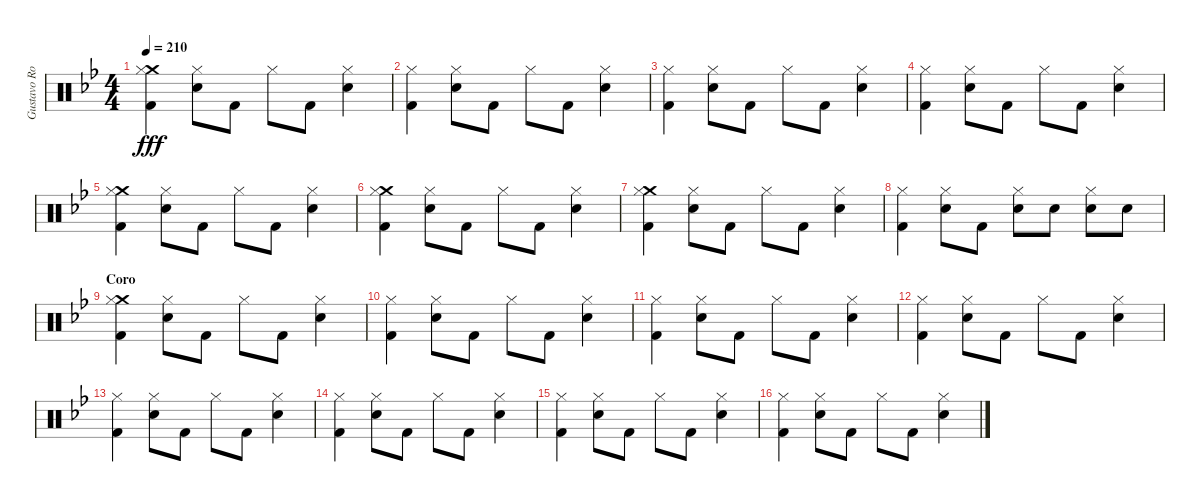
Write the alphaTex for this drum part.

\track ("Gustavo Rowek" "Gustavo Ro") {instrument percussion}
\staff {score}
\articulation defaults
\ts (4 4)
\tempo 210
\clef neutral
\ks gminor
("Crash medium (hit)" "Hi-Hat (closed)" "Kick (hit) 2").4{dy fff} ("Hi-Hat (closed)" "Snare (hit) 2").8 "Kick (hit) 2".8 "Hi-Hat (closed)".8 "Kick (hit) 2".8 ("Hi-Hat (closed)" "Snare (hit) 2").4 |
("Hi-Hat (closed)" "Kick (hit) 2").4 ("Hi-Hat (closed)" "Snare (hit) 2").8 "Kick (hit) 2".8 "Hi-Hat (closed)".8 "Kick (hit) 2".8 ("Hi-Hat (closed)" "Snare (hit) 2").4 |
("Hi-Hat (closed)" "Kick (hit) 2").4 ("Hi-Hat (closed)" "Snare (hit) 2").8 "Kick (hit) 2".8 "Hi-Hat (closed)".8 "Kick (hit) 2".8 ("Hi-Hat (closed)" "Snare (hit) 2").4 |
("Hi-Hat (closed)" "Kick (hit) 2").4 ("Hi-Hat (closed)" "Snare (hit) 2").8 "Kick (hit) 2".8 "Hi-Hat (closed)".8 "Kick (hit) 2".8 ("Hi-Hat (closed)" "Snare (hit) 2").4 |
("Crash medium (hit)" "Hi-Hat (closed)" "Kick (hit) 2").4 ("Hi-Hat (closed)" "Snare (hit) 2").8 "Kick (hit) 2".8 "Hi-Hat (closed)".8 "Kick (hit) 2".8 ("Hi-Hat (closed)" "Snare (hit) 2").4 |
("Crash medium (hit)" "Hi-Hat (closed)" "Kick (hit) 2").4 ("Hi-Hat (closed)" "Snare (hit) 2").8 "Kick (hit) 2".8 "Hi-Hat (closed)".8 "Kick (hit) 2".8 ("Hi-Hat (closed)" "Snare (hit) 2").4 |
("Crash medium (hit)" "Hi-Hat (closed)" "Kick (hit) 2").4 ("Hi-Hat (closed)" "Snare (hit) 2").8 "Kick (hit) 2".8 "Hi-Hat (closed)".8 "Kick (hit) 2".8 ("Hi-Hat (closed)" "Snare (hit) 2").4 |
("Hi-Hat (closed)" "Kick (hit) 2").4 ("Hi-Hat (closed)" "Snare (hit) 2").8 "Kick (hit) 2".8 ("Hi-Hat (closed)" "Snare (hit) 2").8 "Snare (hit) 2".8 ("Hi-Hat (closed)" "Snare (hit) 2").8 "Snare (hit) 2".8 |
\section ("" "Coro")
("Crash medium (hit)" "Hi-Hat (closed)" "Kick (hit) 2").4 ("Hi-Hat (closed)" "Snare (hit) 2").8 "Kick (hit) 2".8 "Hi-Hat (closed)".8 "Kick (hit) 2".8 ("Hi-Hat (closed)" "Snare (hit) 2").4 |
("Hi-Hat (closed)" "Kick (hit) 2").4 ("Hi-Hat (closed)" "Snare (hit) 2").8 "Kick (hit) 2".8 "Hi-Hat (closed)".8 "Kick (hit) 2".8 ("Hi-Hat (closed)" "Snare (hit) 2").4 |
("Hi-Hat (closed)" "Kick (hit) 2").4 ("Hi-Hat (closed)" "Snare (hit) 2").8 "Kick (hit) 2".8 "Hi-Hat (closed)".8 "Kick (hit) 2".8 ("Hi-Hat (closed)" "Snare (hit) 2").4 |
("Hi-Hat (closed)" "Kick (hit) 2").4 ("Hi-Hat (closed)" "Snare (hit) 2").8 "Kick (hit) 2".8 "Hi-Hat (closed)".8 "Kick (hit) 2".8 ("Hi-Hat (closed)" "Snare (hit) 2").4 |
("Hi-Hat (closed)" "Kick (hit) 2").4 ("Hi-Hat (closed)" "Snare (hit) 2").8 "Kick (hit) 2".8 "Hi-Hat (closed)".8 "Kick (hit) 2".8 ("Hi-Hat (closed)" "Snare (hit) 2").4 |
("Hi-Hat (closed)" "Kick (hit) 2").4 ("Hi-Hat (closed)" "Snare (hit) 2").8 "Kick (hit) 2".8 "Hi-Hat (closed)".8 "Kick (hit) 2".8 ("Hi-Hat (closed)" "Snare (hit) 2").4 |
("Hi-Hat (closed)" "Kick (hit) 2").4 ("Hi-Hat (closed)" "Snare (hit) 2").8 "Kick (hit) 2".8 "Hi-Hat (closed)".8 "Kick (hit) 2".8 ("Hi-Hat (closed)" "Snare (hit) 2").4 |
("Hi-Hat (closed)" "Kick (hit) 2").4 ("Hi-Hat (closed)" "Snare (hit) 2").8 "Kick (hit) 2".8 "Hi-Hat (closed)".8 "Kick (hit) 2".8 ("Hi-Hat (closed)" "Snare (hit) 2").4
